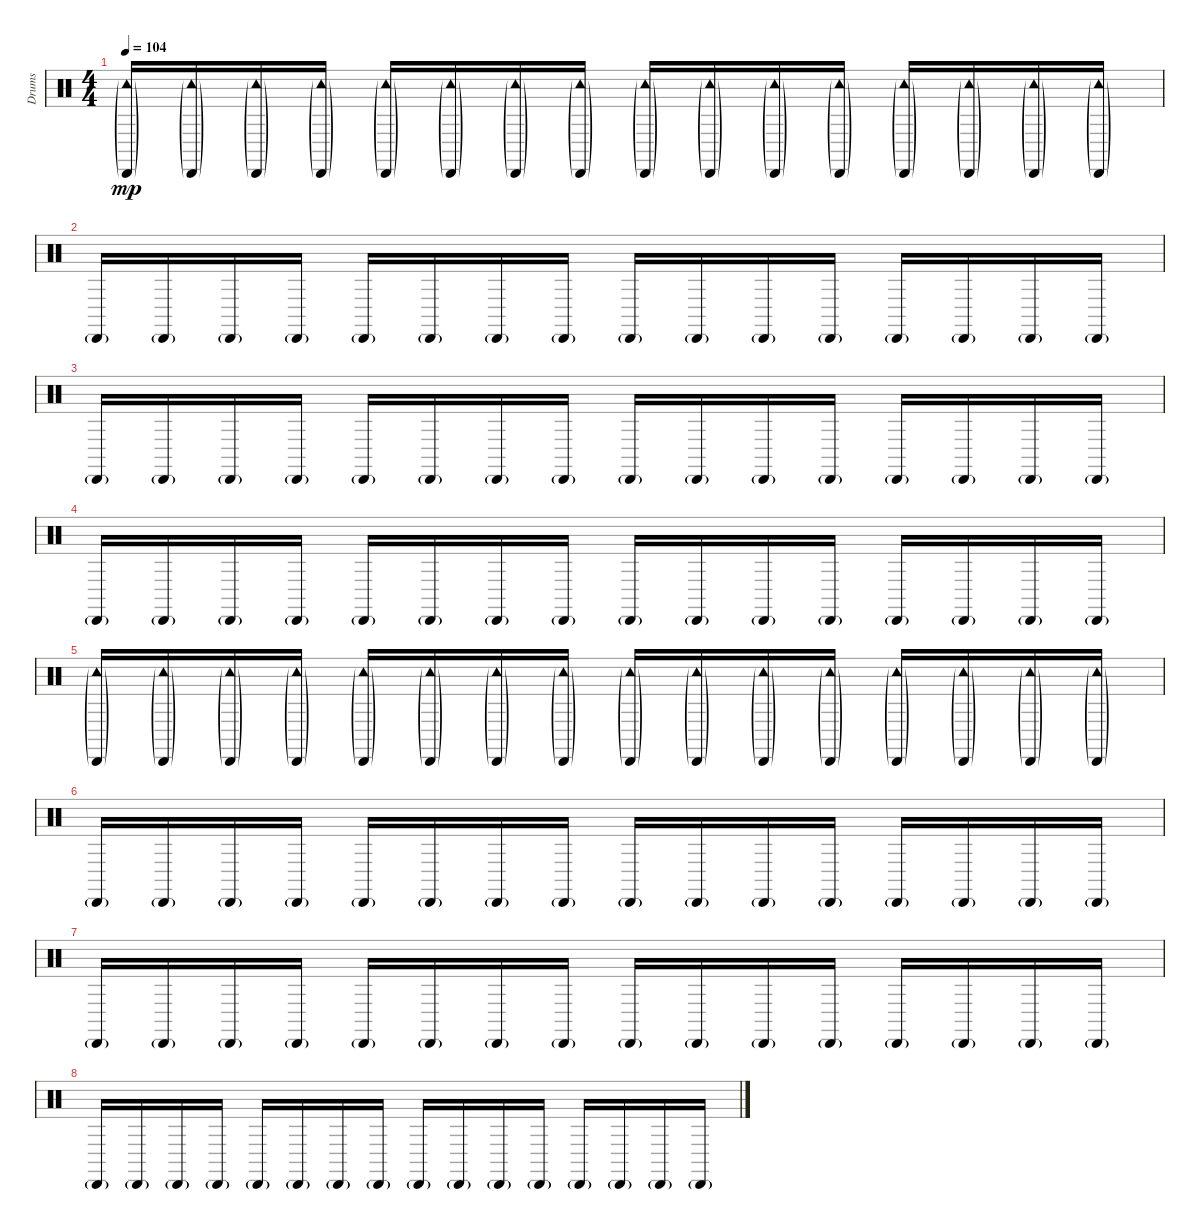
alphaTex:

\track ("Drums" "Drums") {instrument percussion}
\staff {score}
\articulation defaults
\ts (4 4)
\tempo 104
\clef neutral
\ks c
("Cabasa (hit)"{g} "Tambourine (hit)"{g}).16{dy mp} ("Cabasa (hit)"{g} "Tambourine (hit)"{g}).16 ("Cabasa (hit)"{g} "Tambourine (hit)"{g}).16 ("Cabasa (hit)"{g} "Tambourine (hit)"{g}).16 ("Cabasa (hit)"{g} "Tambourine (hit)"{g}).16 ("Cabasa (hit)"{g} "Tambourine (hit)"{g}).16 ("Cabasa (hit)"{g} "Tambourine (hit)"{g}).16 ("Cabasa (hit)"{g} "Tambourine (hit)"{g}).16 ("Cabasa (hit)"{g} "Tambourine (hit)"{g}).16 ("Cabasa (hit)"{g} "Tambourine (hit)"{g}).16 ("Cabasa (hit)"{g} "Tambourine (hit)"{g}).16 ("Cabasa (hit)"{g} "Tambourine (hit)"{g}).16 ("Cabasa (hit)"{g} "Tambourine (hit)"{g}).16 ("Cabasa (hit)"{g} "Tambourine (hit)"{g}).16 ("Cabasa (hit)"{g} "Tambourine (hit)"{g}).16 ("Cabasa (hit)"{g} "Tambourine (hit)"{g}).16 |
"Cabasa (hit)"{g}.16 "Cabasa (hit)"{g}.16 "Cabasa (hit)"{g}.16 "Cabasa (hit)"{g}.16 "Cabasa (hit)"{g}.16 "Cabasa (hit)"{g}.16 "Cabasa (hit)"{g}.16 "Cabasa (hit)"{g}.16 "Cabasa (hit)"{g}.16 "Cabasa (hit)"{g}.16 "Cabasa (hit)"{g}.16 "Cabasa (hit)"{g}.16 "Cabasa (hit)"{g}.16 "Cabasa (hit)"{g}.16 "Cabasa (hit)"{g}.16 "Cabasa (hit)"{g}.16 |
"Cabasa (hit)"{g}.16 "Cabasa (hit)"{g}.16 "Cabasa (hit)"{g}.16 "Cabasa (hit)"{g}.16 "Cabasa (hit)"{g}.16 "Cabasa (hit)"{g}.16 "Cabasa (hit)"{g}.16 "Cabasa (hit)"{g}.16 "Cabasa (hit)"{g}.16 "Cabasa (hit)"{g}.16 "Cabasa (hit)"{g}.16 "Cabasa (hit)"{g}.16 "Cabasa (hit)"{g}.16 "Cabasa (hit)"{g}.16 "Cabasa (hit)"{g}.16 "Cabasa (hit)"{g}.16 |
"Cabasa (hit)"{g}.16 "Cabasa (hit)"{g}.16 "Cabasa (hit)"{g}.16 "Cabasa (hit)"{g}.16 "Cabasa (hit)"{g}.16 "Cabasa (hit)"{g}.16 "Cabasa (hit)"{g}.16 "Cabasa (hit)"{g}.16 "Cabasa (hit)"{g}.16 "Cabasa (hit)"{g}.16 "Cabasa (hit)"{g}.16 "Cabasa (hit)"{g}.16 "Cabasa (hit)"{g}.16 "Cabasa (hit)"{g}.16 "Cabasa (hit)"{g}.16 "Cabasa (hit)"{g}.16 |
("Cabasa (hit)"{g} "Tambourine (hit)"{g}).16 ("Cabasa (hit)"{g} "Tambourine (hit)"{g}).16 ("Cabasa (hit)"{g} "Tambourine (hit)"{g}).16 ("Cabasa (hit)"{g} "Tambourine (hit)"{g}).16 ("Cabasa (hit)"{g} "Tambourine (hit)"{g}).16 ("Cabasa (hit)"{g} "Tambourine (hit)"{g}).16 ("Cabasa (hit)"{g} "Tambourine (hit)"{g}).16 ("Cabasa (hit)"{g} "Tambourine (hit)"{g}).16 ("Cabasa (hit)"{g} "Tambourine (hit)"{g}).16 ("Cabasa (hit)"{g} "Tambourine (hit)"{g}).16 ("Cabasa (hit)"{g} "Tambourine (hit)"{g}).16 ("Cabasa (hit)"{g} "Tambourine (hit)"{g}).16 ("Cabasa (hit)"{g} "Tambourine (hit)"{g}).16 ("Cabasa (hit)"{g} "Tambourine (hit)"{g}).16 ("Cabasa (hit)"{g} "Tambourine (hit)"{g}).16 ("Cabasa (hit)"{g} "Tambourine (hit)"{g}).16 |
"Cabasa (hit)"{g}.16 "Cabasa (hit)"{g}.16 "Cabasa (hit)"{g}.16 "Cabasa (hit)"{g}.16 "Cabasa (hit)"{g}.16 "Cabasa (hit)"{g}.16 "Cabasa (hit)"{g}.16 "Cabasa (hit)"{g}.16 "Cabasa (hit)"{g}.16 "Cabasa (hit)"{g}.16 "Cabasa (hit)"{g}.16 "Cabasa (hit)"{g}.16 "Cabasa (hit)"{g}.16 "Cabasa (hit)"{g}.16 "Cabasa (hit)"{g}.16 "Cabasa (hit)"{g}.16 |
"Cabasa (hit)"{g}.16 "Cabasa (hit)"{g}.16 "Cabasa (hit)"{g}.16 "Cabasa (hit)"{g}.16 "Cabasa (hit)"{g}.16 "Cabasa (hit)"{g}.16 "Cabasa (hit)"{g}.16 "Cabasa (hit)"{g}.16 "Cabasa (hit)"{g}.16 "Cabasa (hit)"{g}.16 "Cabasa (hit)"{g}.16 "Cabasa (hit)"{g}.16 "Cabasa (hit)"{g}.16 "Cabasa (hit)"{g}.16 "Cabasa (hit)"{g}.16 "Cabasa (hit)"{g}.16 |
"Cabasa (hit)"{g}.16 "Cabasa (hit)"{g}.16 "Cabasa (hit)"{g}.16 "Cabasa (hit)"{g}.16 "Cabasa (hit)"{g}.16 "Cabasa (hit)"{g}.16 "Cabasa (hit)"{g}.16 "Cabasa (hit)"{g}.16 "Cabasa (hit)"{g}.16 "Cabasa (hit)"{g}.16 "Cabasa (hit)"{g}.16 "Cabasa (hit)"{g}.16 "Cabasa (hit)"{g}.16 "Cabasa (hit)"{g}.16 "Cabasa (hit)"{g}.16 "Cabasa (hit)"{g}.16
